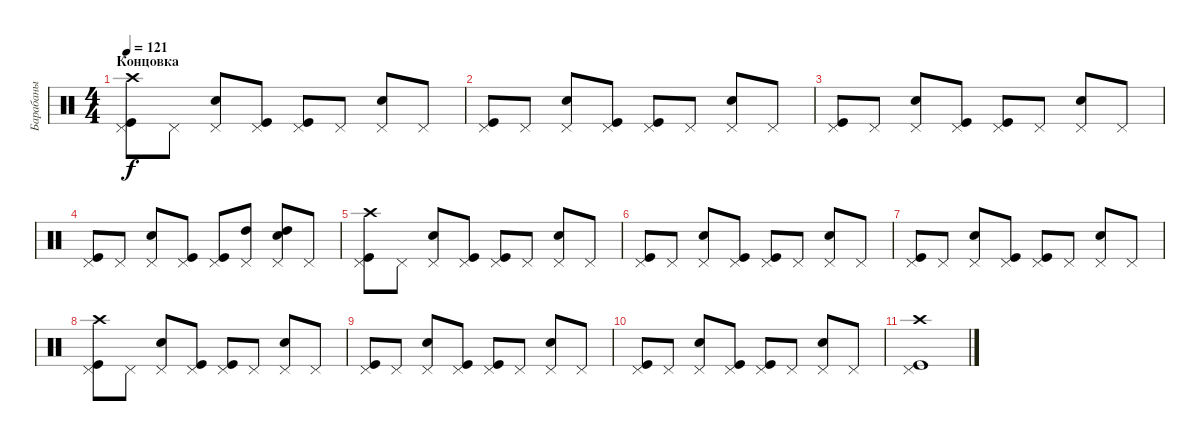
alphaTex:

\track ("Барабаны" "Барабаны") {instrument percussion}
\staff {score}
\articulation defaults
\ts (4 4)
\section ("" "Концовка")
\tempo 121
\clef neutral
\ks c
("Kick (hit)" "Pedal Hi-Hat (hit)" "Crash high (hit)").8{dy f} "Pedal Hi-Hat (hit)".8 ("Snare (hit) 2" "Pedal Hi-Hat (hit)").8 ("Kick (hit)" "Pedal Hi-Hat (hit)").8 ("Kick (hit)" "Pedal Hi-Hat (hit)").8 "Pedal Hi-Hat (hit)".8 ("Snare (hit) 2" "Pedal Hi-Hat (hit)").8 "Pedal Hi-Hat (hit)".8 |
("Kick (hit)" "Pedal Hi-Hat (hit)").8 "Pedal Hi-Hat (hit)".8 ("Snare (hit) 2" "Pedal Hi-Hat (hit)").8 ("Kick (hit)" "Pedal Hi-Hat (hit)").8 ("Kick (hit)" "Pedal Hi-Hat (hit)").8 "Pedal Hi-Hat (hit)".8 ("Snare (hit) 2" "Pedal Hi-Hat (hit)").8 "Pedal Hi-Hat (hit)".8 |
("Kick (hit)" "Pedal Hi-Hat (hit)").8 "Pedal Hi-Hat (hit)".8 ("Snare (hit) 2" "Pedal Hi-Hat (hit)").8 ("Kick (hit)" "Pedal Hi-Hat (hit)").8 ("Kick (hit)" "Pedal Hi-Hat (hit)").8 "Pedal Hi-Hat (hit)".8 ("Snare (hit) 2" "Pedal Hi-Hat (hit)").8 "Pedal Hi-Hat (hit)".8 |
("Kick (hit)" "Pedal Hi-Hat (hit)").8 "Pedal Hi-Hat (hit)".8 ("Snare (hit) 2" "Pedal Hi-Hat (hit)").8 ("Kick (hit)" "Pedal Hi-Hat (hit)").8 ("Kick (hit)" "Pedal Hi-Hat (hit)").8 ("Pedal Hi-Hat (hit)" "High Tom (hit)").8 ("Snare (hit) 2" "Pedal Hi-Hat (hit)" "High Tom (hit)").8 "Pedal Hi-Hat (hit)".8 |
("Kick (hit)" "Pedal Hi-Hat (hit)" "Crash high (hit)").8 "Pedal Hi-Hat (hit)".8 ("Snare (hit) 2" "Pedal Hi-Hat (hit)").8 ("Kick (hit)" "Pedal Hi-Hat (hit)").8 ("Kick (hit)" "Pedal Hi-Hat (hit)").8 "Pedal Hi-Hat (hit)".8 ("Snare (hit) 2" "Pedal Hi-Hat (hit)").8 "Pedal Hi-Hat (hit)".8 |
("Kick (hit)" "Pedal Hi-Hat (hit)").8 "Pedal Hi-Hat (hit)".8 ("Snare (hit) 2" "Pedal Hi-Hat (hit)").8 ("Kick (hit)" "Pedal Hi-Hat (hit)").8 ("Kick (hit)" "Pedal Hi-Hat (hit)").8 "Pedal Hi-Hat (hit)".8 ("Snare (hit) 2" "Pedal Hi-Hat (hit)").8 "Pedal Hi-Hat (hit)".8 |
("Kick (hit)" "Pedal Hi-Hat (hit)").8 "Pedal Hi-Hat (hit)".8 ("Snare (hit) 2" "Pedal Hi-Hat (hit)").8 ("Kick (hit)" "Pedal Hi-Hat (hit)").8 ("Kick (hit)" "Pedal Hi-Hat (hit)").8 "Pedal Hi-Hat (hit)".8 ("Snare (hit) 2" "Pedal Hi-Hat (hit)").8 "Pedal Hi-Hat (hit)".8 |
("Kick (hit)" "Pedal Hi-Hat (hit)" "Crash high (hit)").8 "Pedal Hi-Hat (hit)".8 ("Snare (hit) 2" "Pedal Hi-Hat (hit)").8 ("Kick (hit)" "Pedal Hi-Hat (hit)").8 ("Kick (hit)" "Pedal Hi-Hat (hit)").8 "Pedal Hi-Hat (hit)".8 ("Snare (hit) 2" "Pedal Hi-Hat (hit)").8 "Pedal Hi-Hat (hit)".8 |
("Kick (hit)" "Pedal Hi-Hat (hit)").8 "Pedal Hi-Hat (hit)".8 ("Snare (hit) 2" "Pedal Hi-Hat (hit)").8 ("Kick (hit)" "Pedal Hi-Hat (hit)").8 ("Kick (hit)" "Pedal Hi-Hat (hit)").8 "Pedal Hi-Hat (hit)".8 ("Snare (hit) 2" "Pedal Hi-Hat (hit)").8 "Pedal Hi-Hat (hit)".8 |
("Kick (hit)" "Pedal Hi-Hat (hit)").8 "Pedal Hi-Hat (hit)".8 ("Snare (hit) 2" "Pedal Hi-Hat (hit)").8 ("Kick (hit)" "Pedal Hi-Hat (hit)").8 ("Kick (hit)" "Pedal Hi-Hat (hit)").8 "Pedal Hi-Hat (hit)".8 ("Snare (hit) 2" "Pedal Hi-Hat (hit)").8 "Pedal Hi-Hat (hit)".8 |
("Kick (hit)" "Pedal Hi-Hat (hit)" "Crash high (hit)").1
